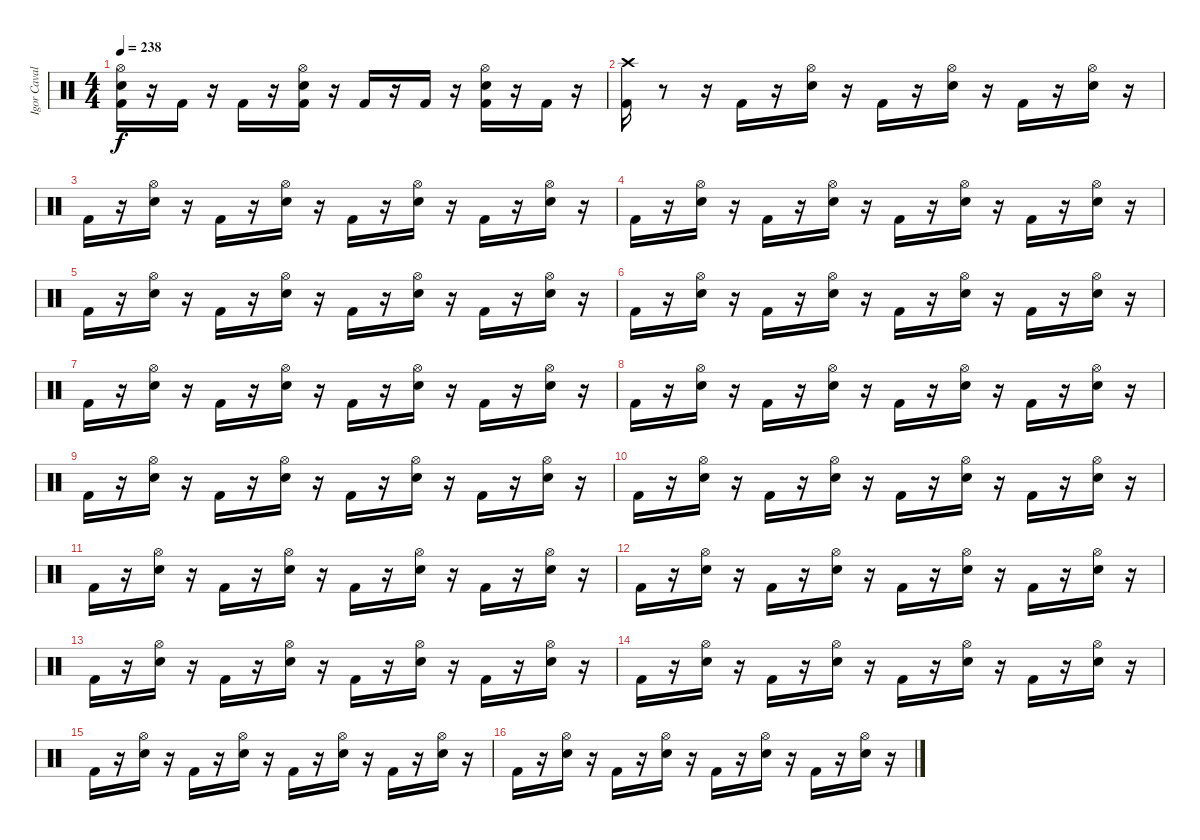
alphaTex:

\track ("Igor Cavalera" "Igor Caval") {instrument percussion}
\staff {score}
\articulation defaults
\ts (4 4)
\tempo 238
\clef neutral
\ks c
("Kick (hit) 2" "Snare (hit) 2" "Hi-Hat (open)").16{dy f} r.16 "Kick (hit) 2".16 r.16 "Kick (hit) 2".16 r.16 ("Kick (hit) 2" "Hi-Hat (open)" "Snare (hit) 2").16 r.16 "Kick (hit) 2".16 r.16 "Kick (hit) 2".16 r.16 ("Kick (hit) 2" "Hi-Hat (open)" "Snare (hit) 2").16 r.16 "Kick (hit) 2".16 r.16 |
("Kick (hit) 2" "Crash high (hit)").16 r.8 r.16 "Kick (hit) 2".16 r.16 ("Snare (hit) 2" "Hi-Hat (open)").16 r.16 "Kick (hit) 2".16 r.16 ("Snare (hit) 2" "Hi-Hat (open)").16 r.16 "Kick (hit) 2".16 r.16 ("Snare (hit) 2" "Hi-Hat (open)").16 r.16 |
"Kick (hit) 2".16 r.16 ("Snare (hit) 2" "Hi-Hat (open)").16 r.16 "Kick (hit) 2".16 r.16 ("Snare (hit) 2" "Hi-Hat (open)").16 r.16 "Kick (hit) 2".16 r.16 ("Snare (hit) 2" "Hi-Hat (open)").16 r.16 "Kick (hit) 2".16 r.16 ("Snare (hit) 2" "Hi-Hat (open)").16 r.16 |
"Kick (hit) 2".16 r.16 ("Snare (hit) 2" "Hi-Hat (open)").16 r.16 "Kick (hit) 2".16 r.16 ("Snare (hit) 2" "Hi-Hat (open)").16 r.16 "Kick (hit) 2".16 r.16 ("Snare (hit) 2" "Hi-Hat (open)").16 r.16 "Kick (hit) 2".16 r.16 ("Snare (hit) 2" "Hi-Hat (open)").16 r.16 |
"Kick (hit) 2".16 r.16 ("Snare (hit) 2" "Hi-Hat (open)").16 r.16 "Kick (hit) 2".16 r.16 ("Snare (hit) 2" "Hi-Hat (open)").16 r.16 "Kick (hit) 2".16 r.16 ("Snare (hit) 2" "Hi-Hat (open)").16 r.16 "Kick (hit) 2".16 r.16 ("Snare (hit) 2" "Hi-Hat (open)").16 r.16 |
"Kick (hit) 2".16 r.16 ("Snare (hit) 2" "Hi-Hat (open)").16 r.16 "Kick (hit) 2".16 r.16 ("Snare (hit) 2" "Hi-Hat (open)").16 r.16 "Kick (hit) 2".16 r.16 ("Snare (hit) 2" "Hi-Hat (open)").16 r.16 "Kick (hit) 2".16 r.16 ("Snare (hit) 2" "Hi-Hat (open)").16 r.16 |
"Kick (hit) 2".16 r.16 ("Snare (hit) 2" "Hi-Hat (open)").16 r.16 "Kick (hit) 2".16 r.16 ("Snare (hit) 2" "Hi-Hat (open)").16 r.16 "Kick (hit) 2".16 r.16 ("Snare (hit) 2" "Hi-Hat (open)").16 r.16 "Kick (hit) 2".16 r.16 ("Snare (hit) 2" "Hi-Hat (open)").16 r.16 |
"Kick (hit) 2".16 r.16 ("Snare (hit) 2" "Hi-Hat (open)").16 r.16 "Kick (hit) 2".16 r.16 ("Snare (hit) 2" "Hi-Hat (open)").16 r.16 "Kick (hit) 2".16 r.16 ("Snare (hit) 2" "Hi-Hat (open)").16 r.16 "Kick (hit) 2".16 r.16 ("Snare (hit) 2" "Hi-Hat (open)").16 r.16 |
"Kick (hit) 2".16 r.16 ("Snare (hit) 2" "Hi-Hat (open)").16 r.16 "Kick (hit) 2".16 r.16 ("Snare (hit) 2" "Hi-Hat (open)").16 r.16 "Kick (hit) 2".16 r.16 ("Snare (hit) 2" "Hi-Hat (open)").16 r.16 "Kick (hit) 2".16 r.16 ("Snare (hit) 2" "Hi-Hat (open)").16 r.16 |
"Kick (hit) 2".16 r.16 ("Snare (hit) 2" "Hi-Hat (open)").16 r.16 "Kick (hit) 2".16 r.16 ("Snare (hit) 2" "Hi-Hat (open)").16 r.16 "Kick (hit) 2".16 r.16 ("Snare (hit) 2" "Hi-Hat (open)").16 r.16 "Kick (hit) 2".16 r.16 ("Snare (hit) 2" "Hi-Hat (open)").16 r.16 |
"Kick (hit) 2".16 r.16 ("Snare (hit) 2" "Hi-Hat (open)").16 r.16 "Kick (hit) 2".16 r.16 ("Snare (hit) 2" "Hi-Hat (open)").16 r.16 "Kick (hit) 2".16 r.16 ("Snare (hit) 2" "Hi-Hat (open)").16 r.16 "Kick (hit) 2".16 r.16 ("Snare (hit) 2" "Hi-Hat (open)").16 r.16 |
"Kick (hit) 2".16 r.16 ("Snare (hit) 2" "Hi-Hat (open)").16 r.16 "Kick (hit) 2".16 r.16 ("Snare (hit) 2" "Hi-Hat (open)").16 r.16 "Kick (hit) 2".16 r.16 ("Snare (hit) 2" "Hi-Hat (open)").16 r.16 "Kick (hit) 2".16 r.16 ("Snare (hit) 2" "Hi-Hat (open)").16 r.16 |
"Kick (hit) 2".16 r.16 ("Snare (hit) 2" "Hi-Hat (open)").16 r.16 "Kick (hit) 2".16 r.16 ("Snare (hit) 2" "Hi-Hat (open)").16 r.16 "Kick (hit) 2".16 r.16 ("Snare (hit) 2" "Hi-Hat (open)").16 r.16 "Kick (hit) 2".16 r.16 ("Snare (hit) 2" "Hi-Hat (open)").16 r.16 |
"Kick (hit) 2".16 r.16 ("Snare (hit) 2" "Hi-Hat (open)").16 r.16 "Kick (hit) 2".16 r.16 ("Snare (hit) 2" "Hi-Hat (open)").16 r.16 "Kick (hit) 2".16 r.16 ("Snare (hit) 2" "Hi-Hat (open)").16 r.16 "Kick (hit) 2".16 r.16 ("Snare (hit) 2" "Hi-Hat (open)").16 r.16 |
"Kick (hit) 2".16 r.16 ("Snare (hit) 2" "Hi-Hat (open)").16 r.16 "Kick (hit) 2".16 r.16 ("Snare (hit) 2" "Hi-Hat (open)").16 r.16 "Kick (hit) 2".16 r.16 ("Snare (hit) 2" "Hi-Hat (open)").16 r.16 "Kick (hit) 2".16 r.16 ("Snare (hit) 2" "Hi-Hat (open)").16 r.16 |
"Kick (hit) 2".16 r.16 ("Snare (hit) 2" "Hi-Hat (open)").16 r.16 "Kick (hit) 2".16 r.16 ("Snare (hit) 2" "Hi-Hat (open)").16 r.16 "Kick (hit) 2".16 r.16 ("Snare (hit) 2" "Hi-Hat (open)").16 r.16 "Kick (hit) 2".16 r.16 ("Snare (hit) 2" "Hi-Hat (open)").16 r.16
